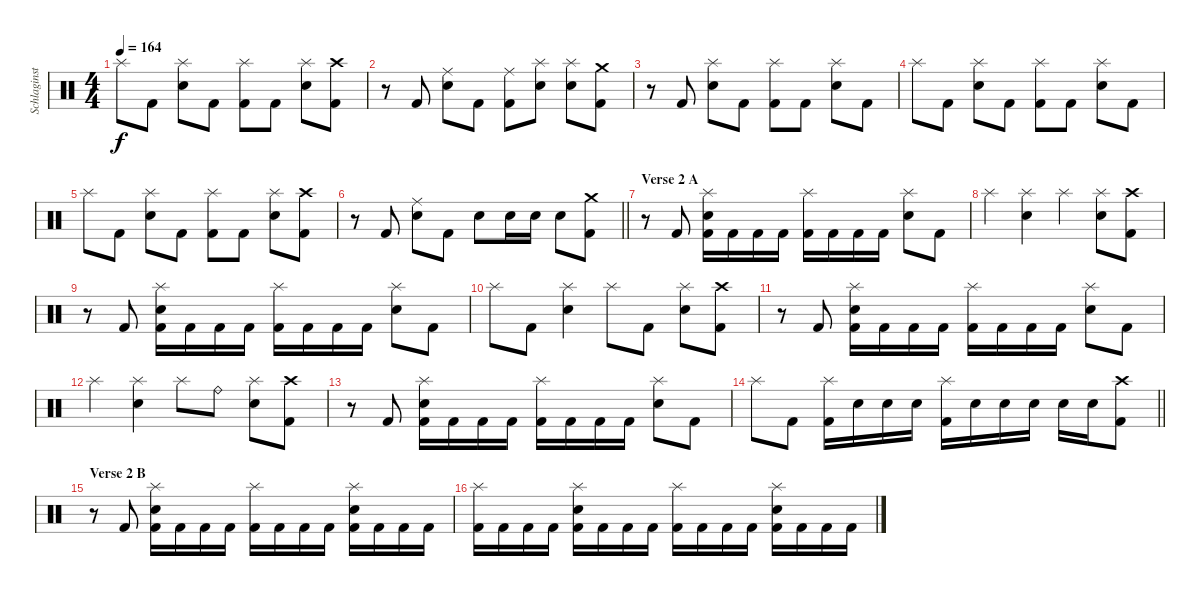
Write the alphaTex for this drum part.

\track ("Schlaginstrumente - Auswahl" "Schlaginst") {instrument percussion}
\staff {score}
\articulation defaults
\ts (4 4)
\tempo 164
\clef neutral
\ks c "Splash (hit)".8{dy f} "Kick (hit) 2".8
("Splash (hit)" "Electric Snare (hit)").8 "Kick (hit) 2".8 ("Splash (hit)" "Kick (hit) 2").8 "Kick (hit) 2".8 ("Splash (hit)" "Electric Snare (hit)").8 ("Crash high (hit)" "Kick (hit) 2").8 |
r.8 "Kick (hit) 2".8 ("Ride (middle)" "Electric Snare (hit)").8 "Kick (hit) 2".8 ("Ride (middle)" "Kick (hit) 2").8 ("Splash (hit)" "Electric Snare (hit)").8 ("Splash (hit)" "Electric Snare (hit)").8 ("Crash medium (hit)" "Kick (hit) 2").8 |
r.8 "Kick (hit) 2".8 ("Splash (hit)" "Electric Snare (hit)").8 "Kick (hit) 2".8 ("Splash (hit)" "Kick (hit) 2").8 "Kick (hit) 2".8 ("Splash (hit)" "Electric Snare (hit)").8 "Kick (hit) 2".8 |
"Splash (hit)".8 "Kick (hit) 2".8 ("Splash (hit)" "Electric Snare (hit)").8 "Kick (hit) 2".8 ("Splash (hit)" "Kick (hit) 2").8 "Kick (hit) 2".8 ("Splash (hit)" "Electric Snare (hit)").8 "Kick (hit) 2".8 |
"Splash (hit)".8 "Kick (hit) 2".8 ("Splash (hit)" "Electric Snare (hit)").8 "Kick (hit) 2".8 ("Splash (hit)" "Kick (hit) 2").8 "Kick (hit) 2".8 ("Splash (hit)" "Electric Snare (hit)").8 ("Crash high (hit)" "Kick (hit) 2").8 |
\barLineRight lightlight
r.8 "Kick (hit) 2".8 ("Ride (middle)" "Electric Snare (hit)").8 "Kick (hit) 2".8 "Electric Snare (hit)".8 "Electric Snare (hit)".16 "Electric Snare (hit)".16 "Electric Snare (hit)".8 ("Crash medium (hit)" "Kick (hit) 2").8 |
\section ("" "Verse 2 A")
r.8 "Kick (hit) 2".8 ("Splash (hit)" "Electric Snare (hit)" "Kick (hit) 2").16 "Kick (hit) 2".16 "Kick (hit) 2".16 "Kick (hit) 2".16 ("Splash (hit)" "Kick (hit) 2").16 "Kick (hit) 2".16 "Kick (hit) 2".16 "Kick (hit) 2".16 ("Splash (hit)" "Electric Snare (hit)").8 "Kick (hit) 2".8 |
"Splash (hit)".4 ("Splash (hit)" "Electric Snare (hit)").4 "Splash (hit)".4 ("Splash (hit)" "Electric Snare (hit)").8 ("Crash high (hit)" "Kick (hit) 2").8 |
r.8 "Kick (hit) 2".8 ("Splash (hit)" "Electric Snare (hit)" "Kick (hit) 2").16 "Kick (hit) 2".16 "Kick (hit) 2".16 "Kick (hit) 2".16 ("Splash (hit)" "Kick (hit) 2").16 "Kick (hit) 2".16 "Kick (hit) 2".16 "Kick (hit) 2".16 ("Splash (hit)" "Electric Snare (hit)").8 "Kick (hit) 2".8 |
"Splash (hit)".8 "Kick (hit) 2".8 ("Splash (hit)" "Electric Snare (hit)").4 "Splash (hit)".8 "Kick (hit) 2".8 ("Splash (hit)" "Electric Snare (hit)").8 ("Crash high (hit)" "Kick (hit) 2").8 |
r.8 "Kick (hit) 2".8 ("Splash (hit)" "Electric Snare (hit)" "Kick (hit) 2").16 "Kick (hit) 2".16 "Kick (hit) 2".16 "Kick (hit) 2".16 ("Splash (hit)" "Kick (hit) 2").16 "Kick (hit) 2".16 "Kick (hit) 2".16 "Kick (hit) 2".16 ("Splash (hit)" "Electric Snare (hit)").8 "Kick (hit) 2".8 |
"Splash (hit)".4 ("Splash (hit)" "Electric Snare (hit)").4 "Splash (hit)".8 "Ride (bell)".8 ("Splash (hit)" "Electric Snare (hit)").8 ("Crash high (hit)" "Kick (hit) 2").8 |
r.8 "Kick (hit) 2".8 ("Splash (hit)" "Electric Snare (hit)" "Kick (hit) 2").16 "Kick (hit) 2".16 "Kick (hit) 2".16 "Kick (hit) 2".16 ("Splash (hit)" "Kick (hit) 2").16 "Kick (hit) 2".16 "Kick (hit) 2".16 "Kick (hit) 2".16 ("Splash (hit)" "Electric Snare (hit)").8 "Kick (hit) 2".8 |
\barLineRight lightlight "Splash (hit)".8 "Kick (hit) 2".8
("Splash (hit)" "Kick (hit) 2").16 "Electric Snare (hit)".16 "Electric Snare (hit)".16 "Electric Snare (hit)".16 ("Splash (hit)" "Kick (hit) 2").16 "Electric Snare (hit)".16 "Electric Snare (hit)".16 "Electric Snare (hit)".16 "Electric Snare (hit)".16 "Electric Snare (hit)".16 ("Crash high (hit)" "Kick (hit) 2").8 |
\section ("" "Verse 2 B")
r.8 "Kick (hit) 2".8 ("Splash (hit)" "Electric Snare (hit)" "Kick (hit) 2").16 "Kick (hit) 2".16 "Kick (hit) 2".16 "Kick (hit) 2".16 ("Splash (hit)" "Kick (hit) 2").16 "Kick (hit) 2".16 "Kick (hit) 2".16 "Kick (hit) 2".16 ("Splash (hit)" "Electric Snare (hit)" "Kick (hit) 2").16 "Kick (hit) 2".16 "Kick (hit) 2".16 "Kick (hit) 2".16 |
("Splash (hit)" "Kick (hit) 2").16 "Kick (hit) 2".16 "Kick (hit) 2".16 "Kick (hit) 2".16 ("Splash (hit)" "Electric Snare (hit)" "Kick (hit) 2").16 "Kick (hit) 2".16 "Kick (hit) 2".16 "Kick (hit) 2".16 ("Splash (hit)" "Kick (hit) 2").16 "Kick (hit) 2".16 "Kick (hit) 2".16 "Kick (hit) 2".16 ("Splash (hit)" "Electric Snare (hit)" "Kick (hit) 2").16 "Kick (hit) 2".16 "Kick (hit) 2".16 "Kick (hit) 2".16
